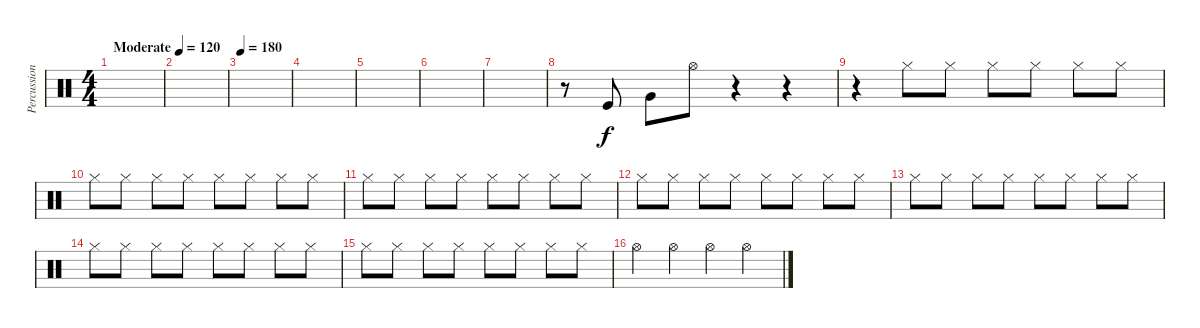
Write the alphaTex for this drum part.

\track ("Percussion" "Percussion") {instrument percussion}
\staff {score}
\articulation defaults
\ts (4 4)
\tempo (120 "Moderate")
\tempo 180
\tempo (120 "Moderate")
\clef neutral
\ks c
|
|
\tempo 180
|
|
|
|
|
r.8 "Kick (hit)".8 "Very Low Tom (hit)".8 "Hi-Hat (open)".8 r.4 r.4 |
r.4 "Hi-Hat (closed)".8 "Hi-Hat (closed)".8 "Hi-Hat (closed)".8 "Hi-Hat (closed)".8 "Hi-Hat (closed)".8 "Hi-Hat (closed)".8 |
"Hi-Hat (closed)".8 "Hi-Hat (closed)".8 "Hi-Hat (closed)".8 "Hi-Hat (closed)".8 "Hi-Hat (closed)".8 "Hi-Hat (closed)".8 "Hi-Hat (closed)".8 "Hi-Hat (closed)".8 |
"Hi-Hat (closed)".8 "Hi-Hat (closed)".8 "Hi-Hat (closed)".8 "Hi-Hat (closed)".8 "Hi-Hat (closed)".8 "Hi-Hat (closed)".8 "Hi-Hat (closed)".8 "Hi-Hat (closed)".8 |
"Hi-Hat (closed)".8 "Hi-Hat (closed)".8 "Hi-Hat (closed)".8 "Hi-Hat (closed)".8 "Hi-Hat (closed)".8 "Hi-Hat (closed)".8 "Hi-Hat (closed)".8 "Hi-Hat (closed)".8 |
"Hi-Hat (closed)".8 "Hi-Hat (closed)".8 "Hi-Hat (closed)".8 "Hi-Hat (closed)".8 "Hi-Hat (closed)".8 "Hi-Hat (closed)".8 "Hi-Hat (closed)".8 "Hi-Hat (closed)".8 |
"Hi-Hat (closed)".8 "Hi-Hat (closed)".8 "Hi-Hat (closed)".8 "Hi-Hat (closed)".8 "Hi-Hat (closed)".8 "Hi-Hat (closed)".8 "Hi-Hat (closed)".8 "Hi-Hat (closed)".8 |
"Hi-Hat (closed)".8 "Hi-Hat (closed)".8 "Hi-Hat (closed)".8 "Hi-Hat (closed)".8 "Hi-Hat (closed)".8 "Hi-Hat (closed)".8 "Hi-Hat (closed)".8 "Hi-Hat (closed)".8 |
"Hi-Hat (open)".4 "Hi-Hat (open)".4 "Hi-Hat (open)".4 "Hi-Hat (open)".4
